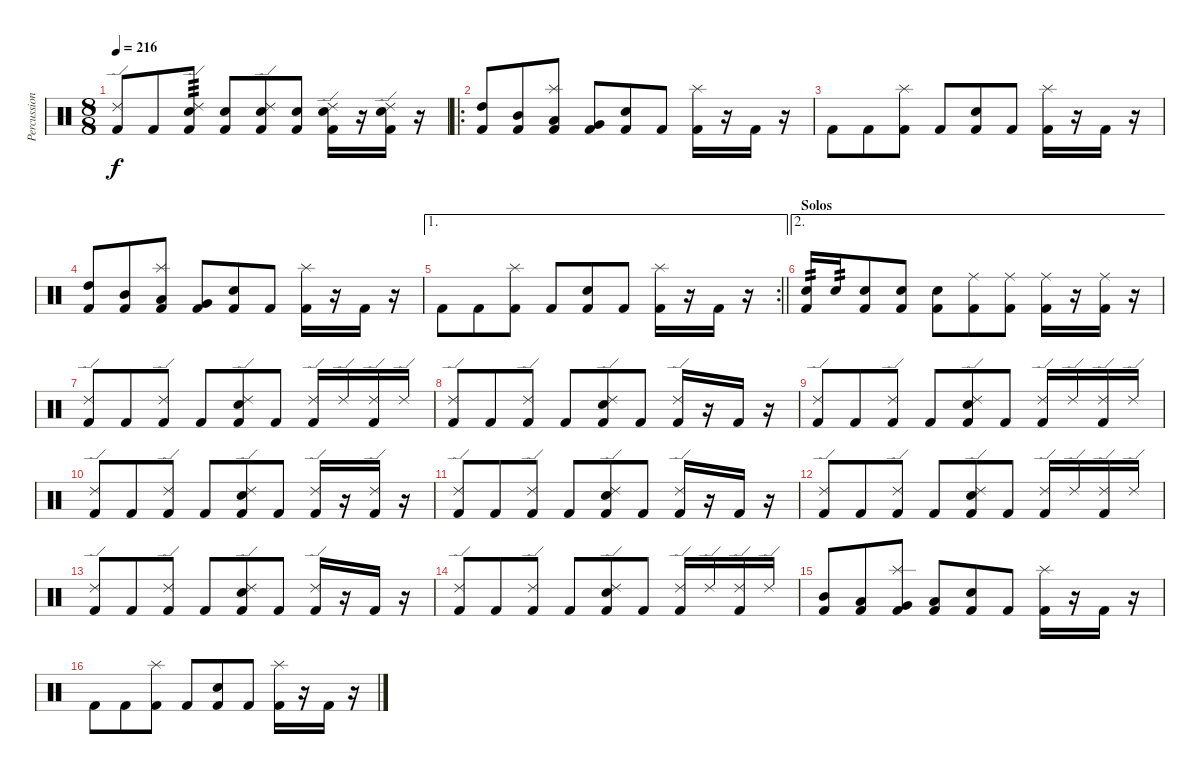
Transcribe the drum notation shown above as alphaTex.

\track ("Percussions" "Percussion") {instrument percussion}
\staff {score}
\articulation defaults
\ts (8 8)
\tempo 216
\clef neutral
\ks c
("Ride (edge) 2" "Kick (hit) 2").8{dy f} "Kick (hit) 2".8 ("Ride (edge) 2" "Electric Snare (hit)" "Kick (hit) 2").8{tp 3} ("Electric Snare (hit)" "Kick (hit) 2").8 ("Ride (edge) 2" "Electric Snare (hit)" "Kick (hit) 2").8 ("Electric Snare (hit)" "Kick (hit) 2").8 ("Ride (edge) 2" "Electric Snare (hit)" "Kick (hit) 2").16 r.16 ("Ride (edge) 2" "Electric Snare (hit)" "Kick (hit) 2").16 r.16 |
\ro
("High Tom (hit)" "Kick (hit) 2").8 ("Mid Tom (hit)" "Kick (hit) 2").8 ("Splash (hit)" "Low Tom (hit)" "Kick (hit) 2").8 ("Very Low Tom (hit)" "Kick (hit) 2").8 ("Electric Snare (hit)" "Kick (hit) 2").8 "Kick (hit) 2".8 ("Splash (hit)" "Kick (hit) 2").16 r.16 "Kick (hit) 2".16 r.16 |
"Kick (hit) 2".8 "Kick (hit) 2".8 ("Splash (hit)" "Kick (hit) 2").8 "Kick (hit) 2".8 ("Electric Snare (hit)" "Kick (hit) 2").8 "Kick (hit) 2".8 ("Splash (hit)" "Kick (hit) 2").16 r.16 "Kick (hit) 2".16 r.16 |
("High Tom (hit)" "Kick (hit) 2").8 ("Mid Tom (hit)" "Kick (hit) 2").8 ("Splash (hit)" "Low Tom (hit)" "Kick (hit) 2").8 ("Very Low Tom (hit)" "Kick (hit) 2").8 ("Electric Snare (hit)" "Kick (hit) 2").8 "Kick (hit) 2".8 ("Splash (hit)" "Kick (hit) 2").16 r.16 "Kick (hit) 2".16 r.16 |
\ae 1
\rc 2
\barLineRight lightlight "Kick (hit) 2".8 "Kick (hit) 2".8
("Splash (hit)" "Kick (hit) 2").8 "Kick (hit) 2".8 ("Electric Snare (hit)" "Kick (hit) 2").8 "Kick (hit) 2".8 ("Splash (hit)" "Kick (hit) 2").16 r.16 "Kick (hit) 2".16 r.16 |
\ae 2
\section ("" "Solos")
("Electric Snare (hit)" "Kick (hit) 2").16{tp 2} "Electric Snare (hit)".16{tp 2} ("Electric Snare (hit)" "Kick (hit) 2").8 ("Electric Snare (hit)" "Kick (hit) 2").8 ("Electric Snare (hit)" "Kick (hit) 2").8 ("Ride (middle)" "Kick (hit) 2").8 ("Ride (middle)" "Kick (hit) 2").8 ("Ride (middle)" "Kick (hit) 2").16 r.16 ("Ride (middle)" "Kick (hit) 2").16 r.16 |
("Ride (edge) 2" "Kick (hit) 2").8 "Kick (hit) 2".8 ("Ride (edge) 2" "Kick (hit) 2").8 "Kick (hit) 2".8 ("Ride (edge) 2" "Electric Snare (hit)" "Kick (hit) 2").8 "Kick (hit) 2".8 ("Ride (edge) 2" "Kick (hit) 2").16 "Ride (edge) 2".16 ("Ride (edge) 2" "Kick (hit) 2").16 "Ride (edge) 2".16 |
("Ride (edge) 2" "Kick (hit) 2").8 "Kick (hit) 2".8 ("Ride (edge) 2" "Kick (hit) 2").8 "Kick (hit) 2".8 ("Ride (edge) 2" "Electric Snare (hit)" "Kick (hit) 2").8 "Kick (hit) 2".8 ("Ride (edge) 2" "Kick (hit) 2").16 r.16 "Kick (hit) 2".16 r.16 |
("Ride (edge) 2" "Kick (hit) 2").8 "Kick (hit) 2".8 ("Ride (edge) 2" "Kick (hit) 2").8 "Kick (hit) 2".8 ("Ride (edge) 2" "Electric Snare (hit)" "Kick (hit) 2").8 "Kick (hit) 2".8 ("Ride (edge) 2" "Kick (hit) 2").16 "Ride (edge) 2".16 ("Ride (edge) 2" "Kick (hit) 2").16 "Ride (edge) 2".16 |
("Ride (edge) 2" "Kick (hit) 2").8 "Kick (hit) 2".8 ("Ride (edge) 2" "Kick (hit) 2").8 "Kick (hit) 2".8 ("Ride (edge) 2" "Electric Snare (hit)" "Kick (hit) 2").8 "Kick (hit) 2".8 ("Ride (edge) 2" "Kick (hit) 2").16 r.16 ("Ride (edge) 2" "Kick (hit) 2").16 r.16 |
("Ride (edge) 2" "Kick (hit) 2").8 "Kick (hit) 2".8 ("Ride (edge) 2" "Kick (hit) 2").8 "Kick (hit) 2".8 ("Ride (edge) 2" "Electric Snare (hit)" "Kick (hit) 2").8 "Kick (hit) 2".8 ("Ride (edge) 2" "Kick (hit) 2").16 r.16 "Kick (hit) 2".16 r.16 |
("Ride (edge) 2" "Kick (hit) 2").8 "Kick (hit) 2".8 ("Ride (edge) 2" "Kick (hit) 2").8 "Kick (hit) 2".8 ("Ride (edge) 2" "Electric Snare (hit)" "Kick (hit) 2").8 "Kick (hit) 2".8 ("Ride (edge) 2" "Kick (hit) 2").16 "Ride (edge) 2".16 ("Ride (edge) 2" "Kick (hit) 2").16 "Ride (edge) 2".16 |
("Ride (edge) 2" "Kick (hit) 2").8 "Kick (hit) 2".8 ("Ride (edge) 2" "Kick (hit) 2").8 "Kick (hit) 2".8 ("Ride (edge) 2" "Electric Snare (hit)" "Kick (hit) 2").8 "Kick (hit) 2".8 ("Ride (edge) 2" "Kick (hit) 2").16 r.16 "Kick (hit) 2".16 r.16 |
("Ride (edge) 2" "Kick (hit) 2").8 "Kick (hit) 2".8 ("Ride (edge) 2" "Kick (hit) 2").8 "Kick (hit) 2".8 ("Ride (edge) 2" "Electric Snare (hit)" "Kick (hit) 2").8 "Kick (hit) 2".8 ("Ride (edge) 2" "Kick (hit) 2").16 "Ride (edge) 2".16 ("Ride (edge) 2" "Kick (hit) 2").16 "Ride (edge) 2".16 |
("Mid Tom (hit)" "Kick (hit) 2").8 ("Low Tom (hit)" "Kick (hit) 2").8 ("Splash (hit)" "Very Low Tom (hit)" "Kick (hit) 2").8 ("Low Floor Tom (hit)" "Kick (hit) 2").8 ("Electric Snare (hit)" "Kick (hit) 2").8 "Kick (hit) 2".8 ("Splash (hit)" "Kick (hit) 2").16 r.16 "Kick (hit) 2".16 r.16 |
"Kick (hit) 2".8 "Kick (hit) 2".8 ("Splash (hit)" "Kick (hit) 2").8 "Kick (hit) 2".8 ("Electric Snare (hit)" "Kick (hit) 2").8 "Kick (hit) 2".8 ("Splash (hit)" "Kick (hit) 2").16 r.16 "Kick (hit) 2".16 r.16
